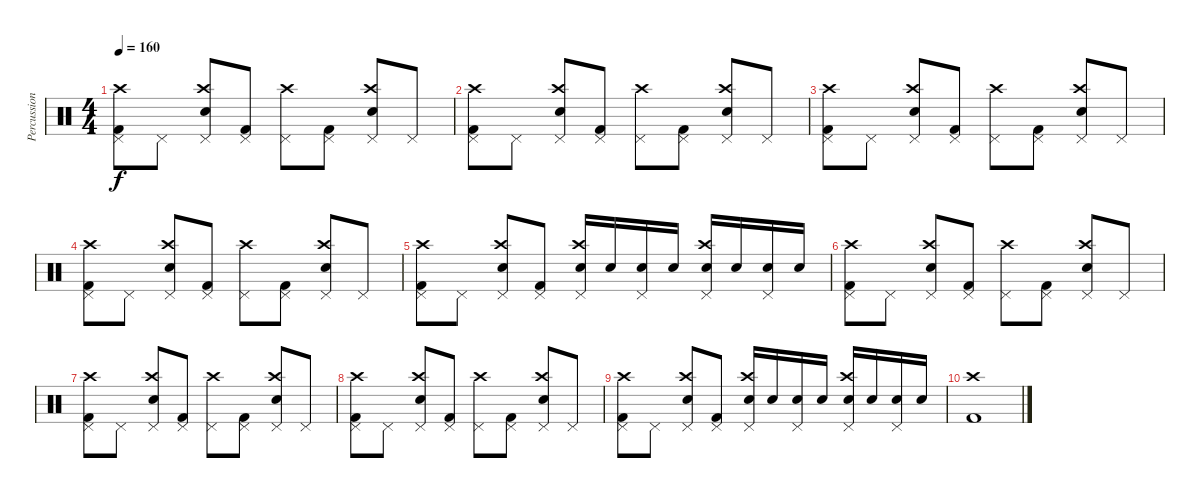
\track ("Percussion" "Percussion") {instrument percussion}
\staff {score}
\articulation defaults
\ts (4 4)
\tempo 160
\clef neutral
\ks c
("Pedal Hi-Hat (hit)" "Kick (hit) 2" "Crash high (hit)").8{dy f} "Pedal Hi-Hat (hit)".8 ("Pedal Hi-Hat (hit)" "Electric Snare (hit)" "Crash high (hit)").8 ("Pedal Hi-Hat (hit)" "Kick (hit) 2").8 ("Pedal Hi-Hat (hit)" "Crash high (hit)").8 ("Pedal Hi-Hat (hit)" "Kick (hit) 2").8 ("Pedal Hi-Hat (hit)" "Electric Snare (hit)" "Crash high (hit)").8 "Pedal Hi-Hat (hit)".8 |
("Pedal Hi-Hat (hit)" "Kick (hit) 2" "Crash high (hit)").8 "Pedal Hi-Hat (hit)".8 ("Pedal Hi-Hat (hit)" "Electric Snare (hit)" "Crash high (hit)").8 ("Pedal Hi-Hat (hit)" "Kick (hit) 2").8 ("Pedal Hi-Hat (hit)" "Crash high (hit)").8 ("Pedal Hi-Hat (hit)" "Kick (hit) 2").8 ("Pedal Hi-Hat (hit)" "Electric Snare (hit)" "Crash high (hit)").8 "Pedal Hi-Hat (hit)".8 |
("Pedal Hi-Hat (hit)" "Kick (hit) 2" "Crash high (hit)").8 "Pedal Hi-Hat (hit)".8 ("Pedal Hi-Hat (hit)" "Electric Snare (hit)" "Crash high (hit)").8 ("Pedal Hi-Hat (hit)" "Kick (hit) 2").8 ("Pedal Hi-Hat (hit)" "Crash high (hit)").8 ("Pedal Hi-Hat (hit)" "Kick (hit) 2").8 ("Pedal Hi-Hat (hit)" "Electric Snare (hit)" "Crash high (hit)").8 "Pedal Hi-Hat (hit)".8 |
("Pedal Hi-Hat (hit)" "Kick (hit) 2" "Crash high (hit)").8 "Pedal Hi-Hat (hit)".8 ("Pedal Hi-Hat (hit)" "Electric Snare (hit)" "Crash high (hit)").8 ("Pedal Hi-Hat (hit)" "Kick (hit) 2").8 ("Pedal Hi-Hat (hit)" "Crash high (hit)").8 ("Pedal Hi-Hat (hit)" "Kick (hit) 2").8 ("Pedal Hi-Hat (hit)" "Electric Snare (hit)" "Crash high (hit)").8 "Pedal Hi-Hat (hit)".8 |
("Pedal Hi-Hat (hit)" "Kick (hit) 2" "Crash high (hit)").8 "Pedal Hi-Hat (hit)".8 ("Pedal Hi-Hat (hit)" "Electric Snare (hit)" "Crash high (hit)").8 ("Pedal Hi-Hat (hit)" "Kick (hit) 2").8 ("Pedal Hi-Hat (hit)" "Electric Snare (hit)" "Crash high (hit)").16 "Electric Snare (hit)".16 ("Pedal Hi-Hat (hit)" "Electric Snare (hit)").16 "Electric Snare (hit)".16 ("Pedal Hi-Hat (hit)" "Electric Snare (hit)" "Crash high (hit)").16 "Electric Snare (hit)".16 ("Pedal Hi-Hat (hit)" "Electric Snare (hit)").16 "Electric Snare (hit)".16 |
("Pedal Hi-Hat (hit)" "Kick (hit) 2" "Crash high (hit)").8 "Pedal Hi-Hat (hit)".8 ("Pedal Hi-Hat (hit)" "Electric Snare (hit)" "Crash high (hit)").8 ("Pedal Hi-Hat (hit)" "Kick (hit) 2").8 ("Pedal Hi-Hat (hit)" "Crash high (hit)").8 ("Pedal Hi-Hat (hit)" "Kick (hit) 2").8 ("Pedal Hi-Hat (hit)" "Electric Snare (hit)" "Crash high (hit)").8 "Pedal Hi-Hat (hit)".8 |
("Pedal Hi-Hat (hit)" "Kick (hit) 2" "Crash high (hit)").8 "Pedal Hi-Hat (hit)".8 ("Pedal Hi-Hat (hit)" "Electric Snare (hit)" "Crash high (hit)").8 ("Pedal Hi-Hat (hit)" "Kick (hit) 2").8 ("Pedal Hi-Hat (hit)" "Crash high (hit)").8 ("Pedal Hi-Hat (hit)" "Kick (hit) 2").8 ("Pedal Hi-Hat (hit)" "Electric Snare (hit)" "Crash high (hit)").8 "Pedal Hi-Hat (hit)".8 |
("Pedal Hi-Hat (hit)" "Kick (hit) 2" "Crash high (hit)").8 "Pedal Hi-Hat (hit)".8 ("Pedal Hi-Hat (hit)" "Electric Snare (hit)" "Crash high (hit)").8 ("Pedal Hi-Hat (hit)" "Kick (hit) 2").8 ("Pedal Hi-Hat (hit)" "Crash high (hit)").8 ("Pedal Hi-Hat (hit)" "Kick (hit) 2").8 ("Pedal Hi-Hat (hit)" "Electric Snare (hit)" "Crash high (hit)").8 "Pedal Hi-Hat (hit)".8 |
("Pedal Hi-Hat (hit)" "Kick (hit) 2" "Crash high (hit)").8 "Pedal Hi-Hat (hit)".8 ("Pedal Hi-Hat (hit)" "Electric Snare (hit)" "Crash high (hit)").8 ("Pedal Hi-Hat (hit)" "Kick (hit) 2").8 ("Pedal Hi-Hat (hit)" "Electric Snare (hit)" "Crash high (hit)").16 "Electric Snare (hit)".16 ("Pedal Hi-Hat (hit)" "Electric Snare (hit)").16 "Electric Snare (hit)".16 ("Pedal Hi-Hat (hit)" "Electric Snare (hit)" "Crash high (hit)").16 "Electric Snare (hit)".16 ("Pedal Hi-Hat (hit)" "Electric Snare (hit)").16 "Electric Snare (hit)".16 |
("Crash high (hit)" "Kick (hit) 2").1
